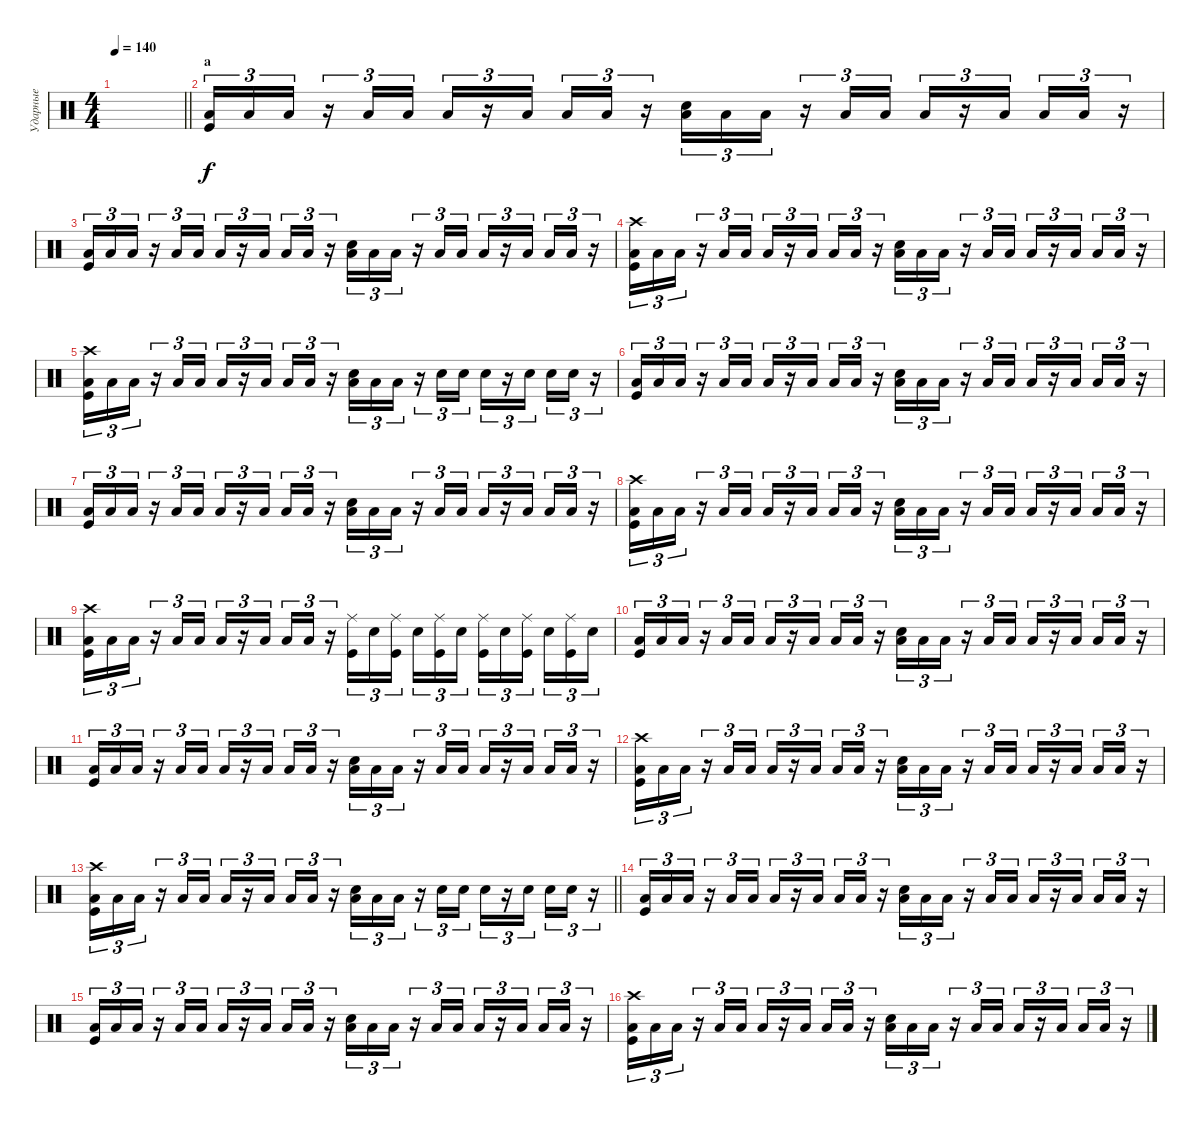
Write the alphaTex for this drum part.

\track ("Ударные" "Ударные") {instrument percussion}
\staff {score}
\articulation defaults
\ts (4 4)
\tempo 140
\clef neutral
\barLineRight lightlight
\ks c
|
\section ("" "a")
("Low Floor Tom (hit)" "Kick (hit)").16{tu (3 2)} "Low Floor Tom (hit)".16{tu (3 2)} "Low Floor Tom (hit)".16{tu (3 2)} r.16{tu (3 2)} "Low Floor Tom (hit)".16{tu (3 2)} "Low Floor Tom (hit)".16{tu (3 2)} "Low Floor Tom (hit)".16{tu (3 2)} r.16{tu (3 2)} "Low Floor Tom (hit)".16{tu (3 2) beam splitsecondary} "Low Floor Tom (hit)".16{tu (3 2)} "Low Floor Tom (hit)".16{tu (3 2)} r.16{tu (3 2)} ("Low Floor Tom (hit)" "Electric Snare (hit)").16{tu (3 2)} "Low Floor Tom (hit)".16{tu (3 2)} "Low Floor Tom (hit)".16{tu (3 2)} r.16{tu (3 2)} "Low Floor Tom (hit)".16{tu (3 2)} "Low Floor Tom (hit)".16{tu (3 2)} "Low Floor Tom (hit)".16{tu (3 2)} r.16{tu (3 2)} "Low Floor Tom (hit)".16{tu (3 2) beam splitsecondary} "Low Floor Tom (hit)".16{tu (3 2)} "Low Floor Tom (hit)".16{tu (3 2)} r.16{tu (3 2)} |
("Low Floor Tom (hit)" "Kick (hit)").16{tu (3 2)} "Low Floor Tom (hit)".16{tu (3 2)} "Low Floor Tom (hit)".16{tu (3 2)} r.16{tu (3 2)} "Low Floor Tom (hit)".16{tu (3 2)} "Low Floor Tom (hit)".16{tu (3 2)} "Low Floor Tom (hit)".16{tu (3 2)} r.16{tu (3 2)} "Low Floor Tom (hit)".16{tu (3 2) beam splitsecondary} "Low Floor Tom (hit)".16{tu (3 2)} "Low Floor Tom (hit)".16{tu (3 2)} r.16{tu (3 2)} ("Low Floor Tom (hit)" "Electric Snare (hit)").16{tu (3 2)} "Low Floor Tom (hit)".16{tu (3 2)} "Low Floor Tom (hit)".16{tu (3 2)} r.16{tu (3 2)} "Low Floor Tom (hit)".16{tu (3 2)} "Low Floor Tom (hit)".16{tu (3 2)} "Low Floor Tom (hit)".16{tu (3 2)} r.16{tu (3 2)} "Low Floor Tom (hit)".16{tu (3 2) beam splitsecondary} "Low Floor Tom (hit)".16{tu (3 2)} "Low Floor Tom (hit)".16{tu (3 2)} r.16{tu (3 2)} |
("Low Floor Tom (hit)" "Kick (hit)" "Crash high (hit)").16{tu (3 2)} "Low Floor Tom (hit)".16{tu (3 2)} "Low Floor Tom (hit)".16{tu (3 2)} r.16{tu (3 2)} "Low Floor Tom (hit)".16{tu (3 2)} "Low Floor Tom (hit)".16{tu (3 2)} "Low Floor Tom (hit)".16{tu (3 2)} r.16{tu (3 2)} "Low Floor Tom (hit)".16{tu (3 2) beam splitsecondary} "Low Floor Tom (hit)".16{tu (3 2)} "Low Floor Tom (hit)".16{tu (3 2)} r.16{tu (3 2)} ("Low Floor Tom (hit)" "Electric Snare (hit)").16{tu (3 2)} "Low Floor Tom (hit)".16{tu (3 2)} "Low Floor Tom (hit)".16{tu (3 2)} r.16{tu (3 2)} "Low Floor Tom (hit)".16{tu (3 2)} "Low Floor Tom (hit)".16{tu (3 2)} "Low Floor Tom (hit)".16{tu (3 2)} r.16{tu (3 2)} "Low Floor Tom (hit)".16{tu (3 2) beam splitsecondary} "Low Floor Tom (hit)".16{tu (3 2)} "Low Floor Tom (hit)".16{tu (3 2)} r.16{tu (3 2)} |
("Low Floor Tom (hit)" "Kick (hit)" "Crash high (hit)").16{tu (3 2)} "Low Floor Tom (hit)".16{tu (3 2)} "Low Floor Tom (hit)".16{tu (3 2)} r.16{tu (3 2)} "Low Floor Tom (hit)".16{tu (3 2)} "Low Floor Tom (hit)".16{tu (3 2)} "Low Floor Tom (hit)".16{tu (3 2)} r.16{tu (3 2)} "Low Floor Tom (hit)".16{tu (3 2) beam splitsecondary} "Low Floor Tom (hit)".16{tu (3 2)} "Low Floor Tom (hit)".16{tu (3 2)} r.16{tu (3 2)} ("Low Floor Tom (hit)" "Electric Snare (hit)").16{tu (3 2)} "Low Floor Tom (hit)".16{tu (3 2)} "Low Floor Tom (hit)".16{tu (3 2)} r.16{tu (3 2)} "Electric Snare (hit)".16{tu (3 2)} "Electric Snare (hit)".16{tu (3 2)} "Electric Snare (hit)".16{tu (3 2)} r.16{tu (3 2)} "Electric Snare (hit)".16{tu (3 2) beam splitsecondary} "Electric Snare (hit)".16{tu (3 2)} "Electric Snare (hit)".16{tu (3 2)} r.16{tu (3 2)} |
("Low Floor Tom (hit)" "Kick (hit)").16{tu (3 2)} "Low Floor Tom (hit)".16{tu (3 2)} "Low Floor Tom (hit)".16{tu (3 2)} r.16{tu (3 2)} "Low Floor Tom (hit)".16{tu (3 2)} "Low Floor Tom (hit)".16{tu (3 2)} "Low Floor Tom (hit)".16{tu (3 2)} r.16{tu (3 2)} "Low Floor Tom (hit)".16{tu (3 2) beam splitsecondary} "Low Floor Tom (hit)".16{tu (3 2)} "Low Floor Tom (hit)".16{tu (3 2)} r.16{tu (3 2)} ("Low Floor Tom (hit)" "Electric Snare (hit)").16{tu (3 2)} "Low Floor Tom (hit)".16{tu (3 2)} "Low Floor Tom (hit)".16{tu (3 2)} r.16{tu (3 2)} "Low Floor Tom (hit)".16{tu (3 2)} "Low Floor Tom (hit)".16{tu (3 2)} "Low Floor Tom (hit)".16{tu (3 2)} r.16{tu (3 2)} "Low Floor Tom (hit)".16{tu (3 2) beam splitsecondary} "Low Floor Tom (hit)".16{tu (3 2)} "Low Floor Tom (hit)".16{tu (3 2)} r.16{tu (3 2)} |
("Low Floor Tom (hit)" "Kick (hit)").16{tu (3 2)} "Low Floor Tom (hit)".16{tu (3 2)} "Low Floor Tom (hit)".16{tu (3 2)} r.16{tu (3 2)} "Low Floor Tom (hit)".16{tu (3 2)} "Low Floor Tom (hit)".16{tu (3 2)} "Low Floor Tom (hit)".16{tu (3 2)} r.16{tu (3 2)} "Low Floor Tom (hit)".16{tu (3 2) beam splitsecondary} "Low Floor Tom (hit)".16{tu (3 2)} "Low Floor Tom (hit)".16{tu (3 2)} r.16{tu (3 2)} ("Low Floor Tom (hit)" "Electric Snare (hit)").16{tu (3 2)} "Low Floor Tom (hit)".16{tu (3 2)} "Low Floor Tom (hit)".16{tu (3 2)} r.16{tu (3 2)} "Low Floor Tom (hit)".16{tu (3 2)} "Low Floor Tom (hit)".16{tu (3 2)} "Low Floor Tom (hit)".16{tu (3 2)} r.16{tu (3 2)} "Low Floor Tom (hit)".16{tu (3 2) beam splitsecondary} "Low Floor Tom (hit)".16{tu (3 2)} "Low Floor Tom (hit)".16{tu (3 2)} r.16{tu (3 2)} |
("Low Floor Tom (hit)" "Kick (hit)" "Crash high (hit)").16{tu (3 2)} "Low Floor Tom (hit)".16{tu (3 2)} "Low Floor Tom (hit)".16{tu (3 2)} r.16{tu (3 2)} "Low Floor Tom (hit)".16{tu (3 2)} "Low Floor Tom (hit)".16{tu (3 2)} "Low Floor Tom (hit)".16{tu (3 2)} r.16{tu (3 2)} "Low Floor Tom (hit)".16{tu (3 2) beam splitsecondary} "Low Floor Tom (hit)".16{tu (3 2)} "Low Floor Tom (hit)".16{tu (3 2)} r.16{tu (3 2)} ("Low Floor Tom (hit)" "Electric Snare (hit)").16{tu (3 2)} "Low Floor Tom (hit)".16{tu (3 2)} "Low Floor Tom (hit)".16{tu (3 2)} r.16{tu (3 2)} "Low Floor Tom (hit)".16{tu (3 2)} "Low Floor Tom (hit)".16{tu (3 2)} "Low Floor Tom (hit)".16{tu (3 2)} r.16{tu (3 2)} "Low Floor Tom (hit)".16{tu (3 2) beam splitsecondary} "Low Floor Tom (hit)".16{tu (3 2)} "Low Floor Tom (hit)".16{tu (3 2)} r.16{tu (3 2)} |
("Low Floor Tom (hit)" "Kick (hit)" "Crash high (hit)").16{tu (3 2)} "Low Floor Tom (hit)".16{tu (3 2)} "Low Floor Tom (hit)".16{tu (3 2)} r.16{tu (3 2)} "Low Floor Tom (hit)".16{tu (3 2)} "Low Floor Tom (hit)".16{tu (3 2)} "Low Floor Tom (hit)".16{tu (3 2)} r.16{tu (3 2)} "Low Floor Tom (hit)".16{tu (3 2) beam splitsecondary} "Low Floor Tom (hit)".16{tu (3 2)} "Low Floor Tom (hit)".16{tu (3 2)} r.16{tu (3 2)} ("Ride (middle)" "Kick (hit)").16{tu (3 2)} "Electric Snare (hit)".16{tu (3 2)} ("Ride (middle)" "Kick (hit)").16{tu (3 2) beam splitsecondary} "Electric Snare (hit)".16{tu (3 2)} ("Ride (middle)" "Kick (hit)").16{tu (3 2)} "Electric Snare (hit)".16{tu (3 2)} ("Ride (middle)" "Kick (hit)").16{tu (3 2)} "Electric Snare (hit)".16{tu (3 2)} ("Ride (middle)" "Kick (hit)").16{tu (3 2) beam splitsecondary} "Electric Snare (hit)".16{tu (3 2)} ("Ride (middle)" "Kick (hit)").16{tu (3 2)} "Electric Snare (hit)".16{tu (3 2)} |
("Low Floor Tom (hit)" "Kick (hit)").16{tu (3 2)} "Low Floor Tom (hit)".16{tu (3 2)} "Low Floor Tom (hit)".16{tu (3 2)} r.16{tu (3 2)} "Low Floor Tom (hit)".16{tu (3 2)} "Low Floor Tom (hit)".16{tu (3 2)} "Low Floor Tom (hit)".16{tu (3 2)} r.16{tu (3 2)} "Low Floor Tom (hit)".16{tu (3 2) beam splitsecondary} "Low Floor Tom (hit)".16{tu (3 2)} "Low Floor Tom (hit)".16{tu (3 2)} r.16{tu (3 2)} ("Low Floor Tom (hit)" "Electric Snare (hit)").16{tu (3 2)} "Low Floor Tom (hit)".16{tu (3 2)} "Low Floor Tom (hit)".16{tu (3 2)} r.16{tu (3 2)} "Low Floor Tom (hit)".16{tu (3 2)} "Low Floor Tom (hit)".16{tu (3 2)} "Low Floor Tom (hit)".16{tu (3 2)} r.16{tu (3 2)} "Low Floor Tom (hit)".16{tu (3 2) beam splitsecondary} "Low Floor Tom (hit)".16{tu (3 2)} "Low Floor Tom (hit)".16{tu (3 2)} r.16{tu (3 2)} |
("Low Floor Tom (hit)" "Kick (hit)").16{tu (3 2)} "Low Floor Tom (hit)".16{tu (3 2)} "Low Floor Tom (hit)".16{tu (3 2)} r.16{tu (3 2)} "Low Floor Tom (hit)".16{tu (3 2)} "Low Floor Tom (hit)".16{tu (3 2)} "Low Floor Tom (hit)".16{tu (3 2)} r.16{tu (3 2)} "Low Floor Tom (hit)".16{tu (3 2) beam splitsecondary} "Low Floor Tom (hit)".16{tu (3 2)} "Low Floor Tom (hit)".16{tu (3 2)} r.16{tu (3 2)} ("Low Floor Tom (hit)" "Electric Snare (hit)").16{tu (3 2)} "Low Floor Tom (hit)".16{tu (3 2)} "Low Floor Tom (hit)".16{tu (3 2)} r.16{tu (3 2)} "Low Floor Tom (hit)".16{tu (3 2)} "Low Floor Tom (hit)".16{tu (3 2)} "Low Floor Tom (hit)".16{tu (3 2)} r.16{tu (3 2)} "Low Floor Tom (hit)".16{tu (3 2) beam splitsecondary} "Low Floor Tom (hit)".16{tu (3 2)} "Low Floor Tom (hit)".16{tu (3 2)} r.16{tu (3 2)} |
("Low Floor Tom (hit)" "Kick (hit)" "Crash high (hit)").16{tu (3 2)} "Low Floor Tom (hit)".16{tu (3 2)} "Low Floor Tom (hit)".16{tu (3 2)} r.16{tu (3 2)} "Low Floor Tom (hit)".16{tu (3 2)} "Low Floor Tom (hit)".16{tu (3 2)} "Low Floor Tom (hit)".16{tu (3 2)} r.16{tu (3 2)} "Low Floor Tom (hit)".16{tu (3 2) beam splitsecondary} "Low Floor Tom (hit)".16{tu (3 2)} "Low Floor Tom (hit)".16{tu (3 2)} r.16{tu (3 2)} ("Low Floor Tom (hit)" "Electric Snare (hit)").16{tu (3 2)} "Low Floor Tom (hit)".16{tu (3 2)} "Low Floor Tom (hit)".16{tu (3 2)} r.16{tu (3 2)} "Low Floor Tom (hit)".16{tu (3 2)} "Low Floor Tom (hit)".16{tu (3 2)} "Low Floor Tom (hit)".16{tu (3 2)} r.16{tu (3 2)} "Low Floor Tom (hit)".16{tu (3 2) beam splitsecondary} "Low Floor Tom (hit)".16{tu (3 2)} "Low Floor Tom (hit)".16{tu (3 2)} r.16{tu (3 2)} |
\barLineRight lightlight
("Low Floor Tom (hit)" "Kick (hit)" "Crash high (hit)").16{tu (3 2)} "Low Floor Tom (hit)".16{tu (3 2)} "Low Floor Tom (hit)".16{tu (3 2)} r.16{tu (3 2)} "Low Floor Tom (hit)".16{tu (3 2)} "Low Floor Tom (hit)".16{tu (3 2)} "Low Floor Tom (hit)".16{tu (3 2)} r.16{tu (3 2)} "Low Floor Tom (hit)".16{tu (3 2) beam splitsecondary} "Low Floor Tom (hit)".16{tu (3 2)} "Low Floor Tom (hit)".16{tu (3 2)} r.16{tu (3 2)} ("Low Floor Tom (hit)" "Electric Snare (hit)").16{tu (3 2)} "Low Floor Tom (hit)".16{tu (3 2)} "Low Floor Tom (hit)".16{tu (3 2)} r.16{tu (3 2)} "Electric Snare (hit)".16{tu (3 2)} "Electric Snare (hit)".16{tu (3 2)} "Electric Snare (hit)".16{tu (3 2)} r.16{tu (3 2)} "Electric Snare (hit)".16{tu (3 2) beam splitsecondary} "Electric Snare (hit)".16{tu (3 2)} "Electric Snare (hit)".16{tu (3 2)} r.16{tu (3 2)} |
("Low Floor Tom (hit)" "Kick (hit)").16{tu (3 2)} "Low Floor Tom (hit)".16{tu (3 2)} "Low Floor Tom (hit)".16{tu (3 2)} r.16{tu (3 2)} "Low Floor Tom (hit)".16{tu (3 2)} "Low Floor Tom (hit)".16{tu (3 2)} "Low Floor Tom (hit)".16{tu (3 2)} r.16{tu (3 2)} "Low Floor Tom (hit)".16{tu (3 2) beam splitsecondary} "Low Floor Tom (hit)".16{tu (3 2)} "Low Floor Tom (hit)".16{tu (3 2)} r.16{tu (3 2)} ("Low Floor Tom (hit)" "Electric Snare (hit)").16{tu (3 2)} "Low Floor Tom (hit)".16{tu (3 2)} "Low Floor Tom (hit)".16{tu (3 2)} r.16{tu (3 2)} "Low Floor Tom (hit)".16{tu (3 2)} "Low Floor Tom (hit)".16{tu (3 2)} "Low Floor Tom (hit)".16{tu (3 2)} r.16{tu (3 2)} "Low Floor Tom (hit)".16{tu (3 2) beam splitsecondary} "Low Floor Tom (hit)".16{tu (3 2)} "Low Floor Tom (hit)".16{tu (3 2)} r.16{tu (3 2)} |
("Low Floor Tom (hit)" "Kick (hit)").16{tu (3 2)} "Low Floor Tom (hit)".16{tu (3 2)} "Low Floor Tom (hit)".16{tu (3 2)} r.16{tu (3 2)} "Low Floor Tom (hit)".16{tu (3 2)} "Low Floor Tom (hit)".16{tu (3 2)} "Low Floor Tom (hit)".16{tu (3 2)} r.16{tu (3 2)} "Low Floor Tom (hit)".16{tu (3 2) beam splitsecondary} "Low Floor Tom (hit)".16{tu (3 2)} "Low Floor Tom (hit)".16{tu (3 2)} r.16{tu (3 2)} ("Low Floor Tom (hit)" "Electric Snare (hit)").16{tu (3 2)} "Low Floor Tom (hit)".16{tu (3 2)} "Low Floor Tom (hit)".16{tu (3 2)} r.16{tu (3 2)} "Low Floor Tom (hit)".16{tu (3 2)} "Low Floor Tom (hit)".16{tu (3 2)} "Low Floor Tom (hit)".16{tu (3 2)} r.16{tu (3 2)} "Low Floor Tom (hit)".16{tu (3 2) beam splitsecondary} "Low Floor Tom (hit)".16{tu (3 2)} "Low Floor Tom (hit)".16{tu (3 2)} r.16{tu (3 2)} |
("Low Floor Tom (hit)" "Kick (hit)" "Crash high (hit)").16{tu (3 2)} "Low Floor Tom (hit)".16{tu (3 2)} "Low Floor Tom (hit)".16{tu (3 2)} r.16{tu (3 2)} "Low Floor Tom (hit)".16{tu (3 2)} "Low Floor Tom (hit)".16{tu (3 2)} "Low Floor Tom (hit)".16{tu (3 2)} r.16{tu (3 2)} "Low Floor Tom (hit)".16{tu (3 2) beam splitsecondary} "Low Floor Tom (hit)".16{tu (3 2)} "Low Floor Tom (hit)".16{tu (3 2)} r.16{tu (3 2)} ("Low Floor Tom (hit)" "Electric Snare (hit)").16{tu (3 2)} "Low Floor Tom (hit)".16{tu (3 2)} "Low Floor Tom (hit)".16{tu (3 2)} r.16{tu (3 2)} "Low Floor Tom (hit)".16{tu (3 2)} "Low Floor Tom (hit)".16{tu (3 2)} "Low Floor Tom (hit)".16{tu (3 2)} r.16{tu (3 2)} "Low Floor Tom (hit)".16{tu (3 2) beam splitsecondary} "Low Floor Tom (hit)".16{tu (3 2)} "Low Floor Tom (hit)".16{tu (3 2)} r.16{tu (3 2)}
